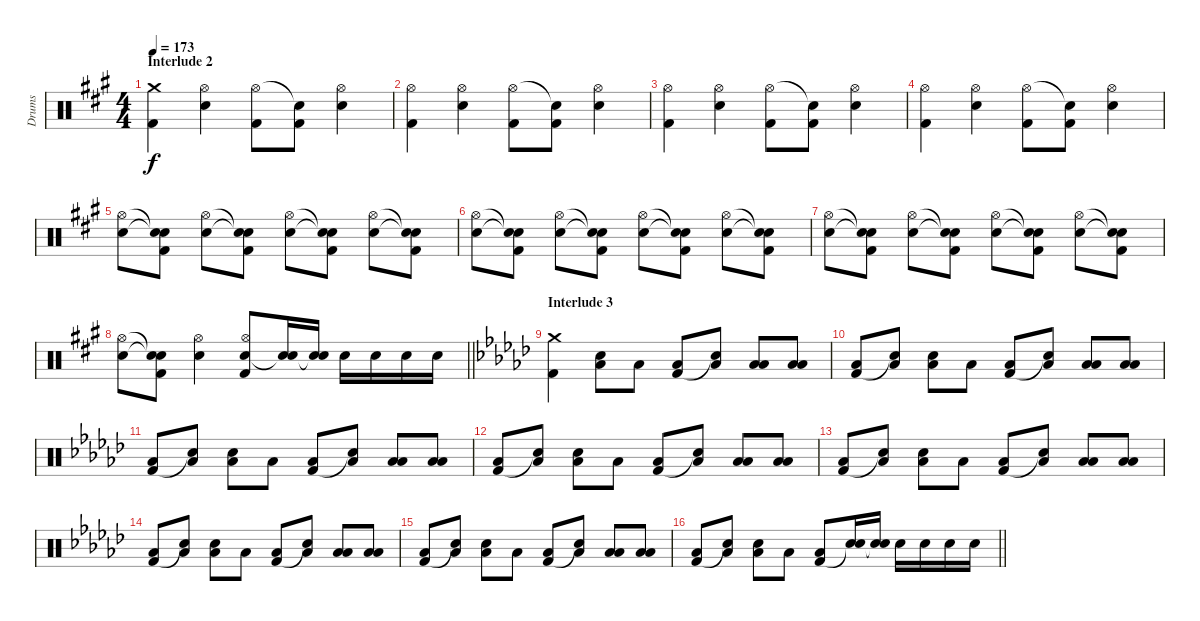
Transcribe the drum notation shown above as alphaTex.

\track ("Drums" "Drums") {instrument percussion}
\staff {score}
\articulation defaults
\ts (4 4)
\section ("" "Interlude 2")
\tempo 173
\clef neutral
\ks f#minor
("Crash medium (hit)" "Kick (hit) 2").4{dy f} ("Hi-Hat (open)" "Electric Snare (hit)").4 ("Hi-Hat (open)" "Kick (hit) 2").8 ("Snare (hit)"{t} "Kick (hit) 2").8 ("Hi-Hat (open)" "Electric Snare (hit)").4 |
("Hi-Hat (open)" "Kick (hit) 2").4 ("Hi-Hat (open)" "Electric Snare (hit)").4 ("Hi-Hat (open)" "Kick (hit) 2").8 ("Snare (hit)"{t} "Kick (hit) 2").8 ("Hi-Hat (open)" "Electric Snare (hit)").4 |
("Hi-Hat (open)" "Kick (hit) 2").4 ("Hi-Hat (open)" "Electric Snare (hit)").4 ("Hi-Hat (open)" "Kick (hit) 2").8 ("Snare (hit)"{t} "Kick (hit) 2").8 ("Hi-Hat (open)" "Electric Snare (hit)").4 |
("Hi-Hat (open)" "Kick (hit) 2").4 ("Hi-Hat (open)" "Electric Snare (hit)").4 ("Hi-Hat (open)" "Kick (hit) 2").8 ("Snare (hit)"{t} "Kick (hit) 2").8 ("Hi-Hat (open)" "Electric Snare (hit)").4 |
("Hi-Hat (open)" "Electric Snare (hit)").8 ("Snare (hit)"{t} "Snare (hit)"{t} "Kick (hit) 2").8 ("Hi-Hat (open)" "Electric Snare (hit)").8 ("Snare (hit)"{t} "Snare (hit)"{t} "Kick (hit) 2").8 ("Hi-Hat (open)" "Electric Snare (hit)").8 ("Snare (hit)"{t} "Snare (hit)"{t} "Kick (hit) 2").8 ("Hi-Hat (open)" "Electric Snare (hit)").8 ("Snare (hit)"{t} "Snare (hit)"{t} "Kick (hit) 2").8 |
("Hi-Hat (open)" "Electric Snare (hit)").8 ("Snare (hit)"{t} "Snare (hit)"{t} "Kick (hit) 2").8 ("Hi-Hat (open)" "Electric Snare (hit)").8 ("Snare (hit)"{t} "Snare (hit)"{t} "Kick (hit) 2").8 ("Hi-Hat (open)" "Electric Snare (hit)").8 ("Snare (hit)"{t} "Snare (hit)"{t} "Kick (hit) 2").8 ("Hi-Hat (open)" "Electric Snare (hit)").8 ("Snare (hit)"{t} "Snare (hit)"{t} "Kick (hit) 2").8 |
("Hi-Hat (open)" "Electric Snare (hit)").8 ("Snare (hit)"{t} "Snare (hit)"{t} "Kick (hit) 2").8 ("Hi-Hat (open)" "Electric Snare (hit)").8 ("Snare (hit)"{t} "Snare (hit)"{t} "Kick (hit) 2").8 ("Hi-Hat (open)" "Electric Snare (hit)").8 ("Snare (hit)"{t} "Snare (hit)"{t} "Kick (hit) 2").8 ("Hi-Hat (open)" "Electric Snare (hit)").8 ("Snare (hit)"{t} "Snare (hit)"{t} "Kick (hit) 2").8 |
\barLineRight lightlight
("Hi-Hat (open)" "Electric Snare (hit)").8 ("Snare (hit)"{t} "Snare (hit)"{t} "Kick (hit) 2").8 ("Hi-Hat (open)" "Electric Snare (hit)").4 ("Hi-Hat (open)" "Electric Snare (hit)" "Kick (hit) 2").8 ("Electric Snare (hit)" "Snare (hit)"{t}).16 ("Electric Snare (hit)" "Snare (hit)"{t}).16 "Electric Snare (hit)".16 "Electric Snare (hit)".16 "Electric Snare (hit)".16 "Electric Snare (hit)".16 |
\section ("" "Interlude 3")
\ks ebminor
("Crash medium (hit)" "Kick (hit) 2").4 ("Electric Snare (hit)" "Low Floor Tom (hit)").8 "Low Floor Tom (hit)".8 ("Low Floor Tom (hit)" "Kick (hit) 2").8 ("Low Floor Tom (hit)" "Snare (hit)"{t}).8 ("Low Tom (hit)" "Low Floor Tom (hit)").8 ("Low Tom (hit)" "Low Floor Tom (hit)").8 |
("Low Floor Tom (hit)" "Kick (hit) 2").8 ("Low Floor Tom (hit)" "Snare (hit)"{t}).8 ("Electric Snare (hit)" "Low Floor Tom (hit)").8 "Low Floor Tom (hit)".8 ("Low Floor Tom (hit)" "Kick (hit) 2").8 ("Low Floor Tom (hit)" "Snare (hit)"{t}).8 ("Low Tom (hit)" "Low Floor Tom (hit)").8 ("Low Tom (hit)" "Low Floor Tom (hit)").8 |
("Low Floor Tom (hit)" "Kick (hit) 2").8 ("Low Floor Tom (hit)" "Snare (hit)"{t}).8 ("Electric Snare (hit)" "Low Floor Tom (hit)").8 "Low Floor Tom (hit)".8 ("Low Floor Tom (hit)" "Kick (hit) 2").8 ("Low Floor Tom (hit)" "Snare (hit)"{t}).8 ("Low Tom (hit)" "Low Floor Tom (hit)").8 ("Low Tom (hit)" "Low Floor Tom (hit)").8 |
("Low Floor Tom (hit)" "Kick (hit) 2").8 ("Low Floor Tom (hit)" "Snare (hit)"{t}).8 ("Electric Snare (hit)" "Low Floor Tom (hit)").8 "Low Floor Tom (hit)".8 ("Low Floor Tom (hit)" "Kick (hit) 2").8 ("Low Floor Tom (hit)" "Snare (hit)"{t}).8 ("Low Tom (hit)" "Low Floor Tom (hit)").8 ("Low Tom (hit)" "Low Floor Tom (hit)").8 |
("Low Floor Tom (hit)" "Kick (hit) 2").8 ("Low Floor Tom (hit)" "Snare (hit)"{t}).8 ("Electric Snare (hit)" "Low Floor Tom (hit)").8 "Low Floor Tom (hit)".8 ("Low Floor Tom (hit)" "Kick (hit) 2").8 ("Low Floor Tom (hit)" "Snare (hit)"{t}).8 ("Low Tom (hit)" "Low Floor Tom (hit)").8 ("Low Tom (hit)" "Low Floor Tom (hit)").8 |
("Low Floor Tom (hit)" "Kick (hit) 2").8 ("Low Floor Tom (hit)" "Snare (hit)"{t}).8 ("Electric Snare (hit)" "Low Floor Tom (hit)").8 "Low Floor Tom (hit)".8 ("Low Floor Tom (hit)" "Kick (hit) 2").8 ("Low Floor Tom (hit)" "Snare (hit)"{t}).8 ("Low Tom (hit)" "Low Floor Tom (hit)").8 ("Low Tom (hit)" "Low Floor Tom (hit)").8 |
("Low Floor Tom (hit)" "Kick (hit) 2").8 ("Low Floor Tom (hit)" "Snare (hit)"{t}).8 ("Electric Snare (hit)" "Low Floor Tom (hit)").8 "Low Floor Tom (hit)".8 ("Low Floor Tom (hit)" "Kick (hit) 2").8 ("Low Floor Tom (hit)" "Snare (hit)"{t}).8 ("Low Tom (hit)" "Low Floor Tom (hit)").8 ("Low Tom (hit)" "Low Floor Tom (hit)").8 |
\barLineRight lightlight
("Low Floor Tom (hit)" "Kick (hit) 2").8 ("Low Floor Tom (hit)" "Snare (hit)"{t}).8 ("Electric Snare (hit)" "Low Floor Tom (hit)").8 "Low Floor Tom (hit)".8 ("Low Floor Tom (hit)" "Kick (hit) 2").8 ("Electric Snare (hit)" "Snare (hit)"{t}).16 ("Electric Snare (hit)" "Snare (hit)"{t}).16 "Electric Snare (hit)".16 "Electric Snare (hit)".16 "Electric Snare (hit)".16 "Electric Snare (hit)".16
